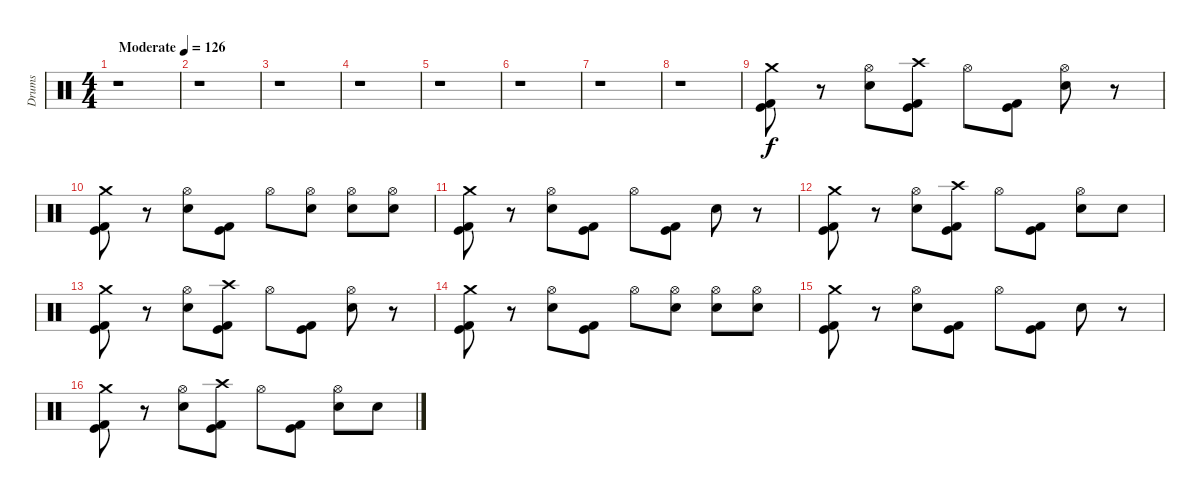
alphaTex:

\track ("Drums" "Drums") {instrument percussion}
\staff {score}
\articulation defaults
\ts (4 4)
\tempo (126 "Moderate")
\clef neutral
\ks c
r.1{dy f} |
r.1 |
r.1 |
r.1 |
r.1 |
r.1 |
r.1 |
r.1 |
("Crash medium (hit)" "Kick (hit) 2" "Kick (hit)").8 r.8 ("Hi-Hat (open)" "Snare (hit) 2").8 ("Crash high (hit)" "Kick (hit) 2" "Kick (hit)").8 "Hi-Hat (open)".8 ("Kick (hit) 2" "Kick (hit)").8 ("Hi-Hat (open)" "Snare (hit) 2").8 r.8 |
("Crash medium (hit)" "Kick (hit) 2" "Kick (hit)").8 r.8 ("Hi-Hat (open)" "Snare (hit) 2").8 ("Kick (hit) 2" "Kick (hit)").8 "Hi-Hat (open)".8 ("Hi-Hat (open)" "Snare (hit) 2").8 ("Hi-Hat (open)" "Snare (hit) 2").8 ("Hi-Hat (open)" "Snare (hit) 2").8 |
("Crash medium (hit)" "Kick (hit) 2" "Kick (hit)").8 r.8 ("Hi-Hat (open)" "Snare (hit) 2").8 ("Kick (hit) 2" "Kick (hit)").8 "Hi-Hat (open)".8 ("Kick (hit) 2" "Kick (hit)").8 "Snare (hit) 2".8 r.8 |
("Crash medium (hit)" "Kick (hit) 2" "Kick (hit)").8 r.8 ("Hi-Hat (open)" "Snare (hit) 2").8 ("Crash high (hit)" "Kick (hit) 2" "Kick (hit)").8 "Hi-Hat (open)".8 ("Kick (hit) 2" "Kick (hit)").8 ("Hi-Hat (open)" "Snare (hit) 2").8 "Snare (hit) 2".8 |
("Crash medium (hit)" "Kick (hit) 2" "Kick (hit)").8 r.8 ("Hi-Hat (open)" "Snare (hit) 2").8 ("Crash high (hit)" "Kick (hit) 2" "Kick (hit)").8 "Hi-Hat (open)".8 ("Kick (hit) 2" "Kick (hit)").8 ("Hi-Hat (open)" "Snare (hit) 2").8 r.8 |
("Crash medium (hit)" "Kick (hit) 2" "Kick (hit)").8 r.8 ("Hi-Hat (open)" "Snare (hit) 2").8 ("Kick (hit) 2" "Kick (hit)").8 "Hi-Hat (open)".8 ("Hi-Hat (open)" "Snare (hit) 2").8 ("Hi-Hat (open)" "Snare (hit) 2").8 ("Hi-Hat (open)" "Snare (hit) 2").8 |
("Crash medium (hit)" "Kick (hit) 2" "Kick (hit)").8 r.8 ("Hi-Hat (open)" "Snare (hit) 2").8 ("Kick (hit) 2" "Kick (hit)").8 "Hi-Hat (open)".8 ("Kick (hit) 2" "Kick (hit)").8 "Snare (hit) 2".8 r.8 |
("Crash medium (hit)" "Kick (hit) 2" "Kick (hit)").8 r.8 ("Hi-Hat (open)" "Snare (hit) 2").8 ("Crash high (hit)" "Kick (hit) 2" "Kick (hit)").8 "Hi-Hat (open)".8 ("Kick (hit) 2" "Kick (hit)").8 ("Hi-Hat (open)" "Snare (hit) 2").8 "Snare (hit) 2".8
